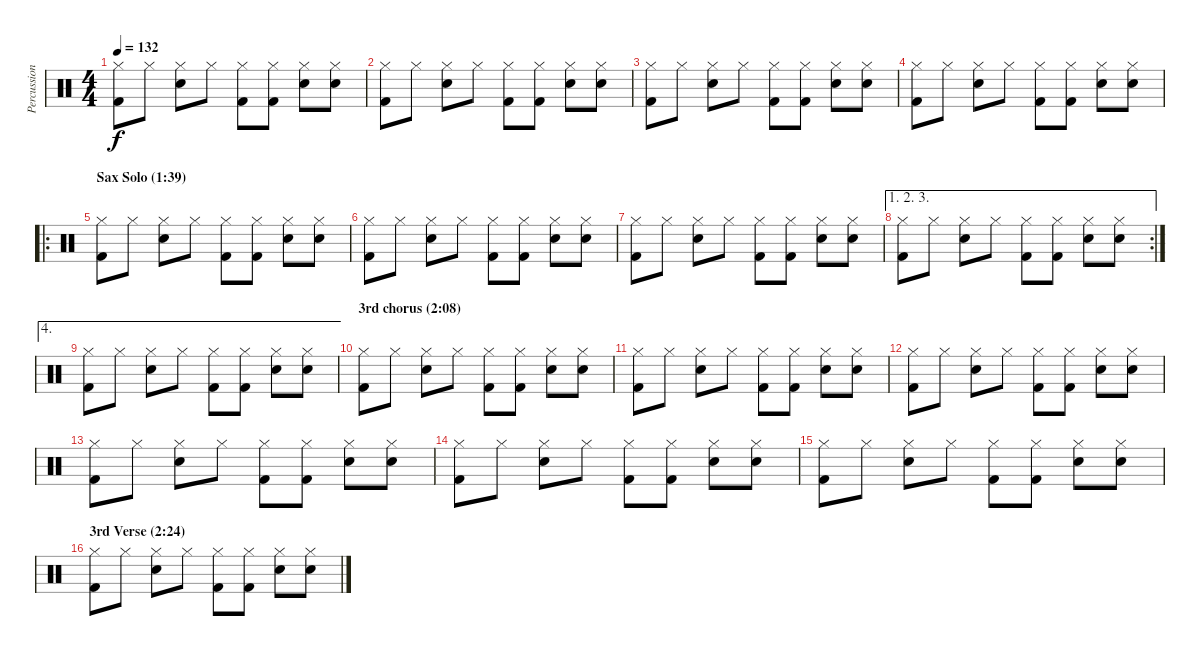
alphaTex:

\track ("Percussions" "Percussion") {instrument percussion}
\staff {score}
\articulation defaults
\ts (4 4)
\tempo 132
\clef neutral
\ks c
("Hi-Hat (closed)" "Kick (hit) 2").8{dy f} "Hi-Hat (closed)".8 ("Hi-Hat (closed)" "Snare (hit) 2").8 "Hi-Hat (closed)".8 ("Hi-Hat (closed)" "Kick (hit) 2").8 ("Hi-Hat (closed)" "Kick (hit) 2").8 ("Hi-Hat (closed)" "Snare (hit) 2").8 ("Hi-Hat (closed)" "Snare (hit) 2").8 |
("Hi-Hat (closed)" "Kick (hit) 2").8 "Hi-Hat (closed)".8 ("Hi-Hat (closed)" "Snare (hit) 2").8 "Hi-Hat (closed)".8 ("Hi-Hat (closed)" "Kick (hit) 2").8 ("Hi-Hat (closed)" "Kick (hit) 2").8 ("Hi-Hat (closed)" "Snare (hit) 2").8 ("Hi-Hat (closed)" "Snare (hit) 2").8 |
("Hi-Hat (closed)" "Kick (hit) 2").8 "Hi-Hat (closed)".8 ("Hi-Hat (closed)" "Snare (hit) 2").8 "Hi-Hat (closed)".8 ("Hi-Hat (closed)" "Kick (hit) 2").8 ("Hi-Hat (closed)" "Kick (hit) 2").8 ("Hi-Hat (closed)" "Snare (hit) 2").8 ("Hi-Hat (closed)" "Snare (hit) 2").8 |
("Hi-Hat (closed)" "Kick (hit) 2").8 "Hi-Hat (closed)".8 ("Hi-Hat (closed)" "Snare (hit) 2").8 "Hi-Hat (closed)".8 ("Hi-Hat (closed)" "Kick (hit) 2").8 ("Hi-Hat (closed)" "Kick (hit) 2").8 ("Hi-Hat (closed)" "Snare (hit) 2").8 ("Hi-Hat (closed)" "Snare (hit) 2").8 |
\ro
\section ("" "Sax Solo (1:39)")
("Hi-Hat (closed)" "Kick (hit) 2").8 "Hi-Hat (closed)".8 ("Hi-Hat (closed)" "Snare (hit) 2").8 "Hi-Hat (closed)".8 ("Hi-Hat (closed)" "Kick (hit) 2").8 ("Hi-Hat (closed)" "Kick (hit) 2").8 ("Hi-Hat (closed)" "Snare (hit) 2").8 ("Hi-Hat (closed)" "Snare (hit) 2").8 |
("Hi-Hat (closed)" "Kick (hit) 2").8 "Hi-Hat (closed)".8 ("Hi-Hat (closed)" "Snare (hit) 2").8 "Hi-Hat (closed)".8 ("Hi-Hat (closed)" "Kick (hit) 2").8 ("Hi-Hat (closed)" "Kick (hit) 2").8 ("Hi-Hat (closed)" "Snare (hit) 2").8 ("Hi-Hat (closed)" "Snare (hit) 2").8 |
("Hi-Hat (closed)" "Kick (hit) 2").8 "Hi-Hat (closed)".8 ("Hi-Hat (closed)" "Snare (hit) 2").8 "Hi-Hat (closed)".8 ("Hi-Hat (closed)" "Kick (hit) 2").8 ("Hi-Hat (closed)" "Kick (hit) 2").8 ("Hi-Hat (closed)" "Snare (hit) 2").8 ("Hi-Hat (closed)" "Snare (hit) 2").8 |
\ae (1 2 3)
\rc 2
("Hi-Hat (closed)" "Kick (hit) 2").8 "Hi-Hat (closed)".8 ("Hi-Hat (closed)" "Snare (hit) 2").8 "Hi-Hat (closed)".8 ("Hi-Hat (closed)" "Kick (hit) 2").8 ("Hi-Hat (closed)" "Kick (hit) 2").8 ("Hi-Hat (closed)" "Snare (hit) 2").8 ("Hi-Hat (closed)" "Snare (hit) 2").8 |
\ae 4
("Hi-Hat (closed)" "Kick (hit) 2").8 "Hi-Hat (closed)".8 ("Hi-Hat (closed)" "Snare (hit) 2").8 "Hi-Hat (closed)".8 ("Hi-Hat (closed)" "Kick (hit) 2").8 ("Hi-Hat (closed)" "Kick (hit) 2").8 ("Hi-Hat (closed)" "Snare (hit) 2").8 ("Hi-Hat (closed)" "Snare (hit) 2").8 |
\section ("" "3rd chorus (2:08)")
("Hi-Hat (closed)" "Kick (hit) 2").8 "Hi-Hat (closed)".8 ("Hi-Hat (closed)" "Snare (hit) 2").8 "Hi-Hat (closed)".8 ("Hi-Hat (closed)" "Kick (hit) 2").8 ("Hi-Hat (closed)" "Kick (hit) 2").8 ("Hi-Hat (closed)" "Snare (hit) 2").8 ("Hi-Hat (closed)" "Snare (hit) 2").8 |
("Hi-Hat (closed)" "Kick (hit) 2").8 "Hi-Hat (closed)".8 ("Hi-Hat (closed)" "Snare (hit) 2").8 "Hi-Hat (closed)".8 ("Hi-Hat (closed)" "Kick (hit) 2").8 ("Hi-Hat (closed)" "Kick (hit) 2").8 ("Hi-Hat (closed)" "Snare (hit) 2").8 ("Hi-Hat (closed)" "Snare (hit) 2").8 |
("Hi-Hat (closed)" "Kick (hit) 2").8 "Hi-Hat (closed)".8 ("Hi-Hat (closed)" "Snare (hit) 2").8 "Hi-Hat (closed)".8 ("Hi-Hat (closed)" "Kick (hit) 2").8 ("Hi-Hat (closed)" "Kick (hit) 2").8 ("Hi-Hat (closed)" "Snare (hit) 2").8 ("Hi-Hat (closed)" "Snare (hit) 2").8 |
("Hi-Hat (closed)" "Kick (hit) 2").8 "Hi-Hat (closed)".8 ("Hi-Hat (closed)" "Snare (hit) 2").8 "Hi-Hat (closed)".8 ("Hi-Hat (closed)" "Kick (hit) 2").8 ("Hi-Hat (closed)" "Kick (hit) 2").8 ("Hi-Hat (closed)" "Snare (hit) 2").8 ("Hi-Hat (closed)" "Snare (hit) 2").8 |
("Hi-Hat (closed)" "Kick (hit) 2").8 "Hi-Hat (closed)".8 ("Hi-Hat (closed)" "Snare (hit) 2").8 "Hi-Hat (closed)".8 ("Hi-Hat (closed)" "Kick (hit) 2").8 ("Hi-Hat (closed)" "Kick (hit) 2").8 ("Hi-Hat (closed)" "Snare (hit) 2").8 ("Hi-Hat (closed)" "Snare (hit) 2").8 |
("Hi-Hat (closed)" "Kick (hit) 2").8 "Hi-Hat (closed)".8 ("Hi-Hat (closed)" "Snare (hit) 2").8 "Hi-Hat (closed)".8 ("Hi-Hat (closed)" "Kick (hit) 2").8 ("Hi-Hat (closed)" "Kick (hit) 2").8 ("Hi-Hat (closed)" "Snare (hit) 2").8 ("Hi-Hat (closed)" "Snare (hit) 2").8 |
\section ("" "3rd Verse (2:24)")
("Hi-Hat (closed)" "Kick (hit) 2").8 "Hi-Hat (closed)".8 ("Hi-Hat (closed)" "Snare (hit) 2").8 "Hi-Hat (closed)".8 ("Hi-Hat (closed)" "Kick (hit) 2").8 ("Hi-Hat (closed)" "Kick (hit) 2").8 ("Hi-Hat (closed)" "Snare (hit) 2").8 ("Hi-Hat (closed)" "Snare (hit) 2").8
